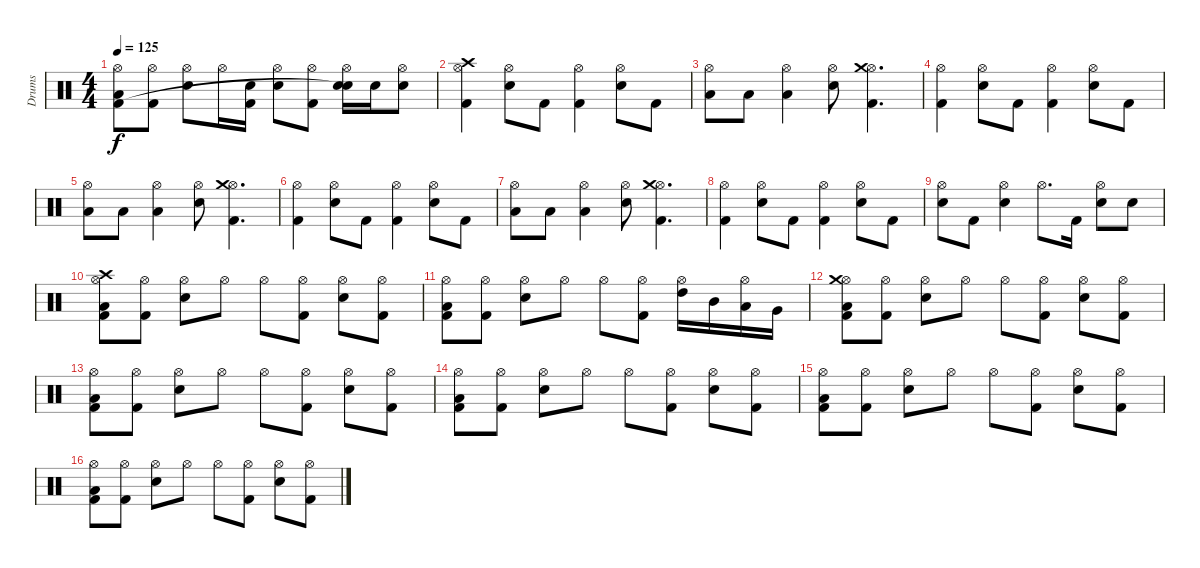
\track ("Drums" "Drums") {instrument percussion}
\staff {score}
\articulation defaults
\ts (4 4)
\tempo 125
\clef neutral
\ks c
("Hi-Hat (open)" "Low Tom (hit)" "Kick (hit) 2").8{dy f} ("Hi-Hat (open)" "Kick (hit) 2").8 ("Hi-Hat (open)" "Snare (hit) 2").8 "Hi-Hat (open)".16 ("Snare (hit) 2" "Kick (hit) 2").16 ("Hi-Hat (open)" "Snare (hit) 2").8 ("Hi-Hat (open)" "Kick (hit) 2").8 ("Hi-Hat (open)" "Electric Snare (hit)" "Snare (hit)"{t}).16 "Electric Snare (hit)".16 ("Hi-Hat (open)" "Snare (hit) 2").8 |
("Hi-Hat (open)" "Crash high (hit)" "Kick (hit) 2").4 ("Hi-Hat (open)" "Snare (hit) 2").8 "Kick (hit) 2".8 ("Hi-Hat (open)" "Kick (hit) 2").4 ("Hi-Hat (open)" "Snare (hit) 2").8 "Kick (hit) 2".8 |
("Hi-Hat (open)" "Low Tom (hit)").8 "Low Tom (hit)".8 ("Hi-Hat (open)" "Low Tom (hit)").4 ("Hi-Hat (open)" "Snare (hit) 2").8 ("Hi-Hat (open)" "Crash medium (hit)" "Kick (hit) 2").4{d} |
("Hi-Hat (open)" "Kick (hit) 2").4 ("Hi-Hat (open)" "Snare (hit) 2").8 "Kick (hit) 2".8 ("Hi-Hat (open)" "Kick (hit) 2").4 ("Hi-Hat (open)" "Snare (hit) 2").8 "Kick (hit) 2".8 |
("Hi-Hat (open)" "Low Tom (hit)").8 "Low Tom (hit)".8 ("Hi-Hat (open)" "Low Tom (hit)").4 ("Hi-Hat (open)" "Snare (hit) 2").8 ("Hi-Hat (open)" "Crash medium (hit)" "Kick (hit) 2").4{d} |
("Hi-Hat (open)" "Kick (hit) 2").4 ("Hi-Hat (open)" "Snare (hit) 2").8 "Kick (hit) 2".8 ("Hi-Hat (open)" "Kick (hit) 2").4 ("Hi-Hat (open)" "Snare (hit) 2").8 "Kick (hit) 2".8 |
("Hi-Hat (open)" "Low Tom (hit)").8 "Low Tom (hit)".8 ("Hi-Hat (open)" "Low Tom (hit)").4 ("Hi-Hat (open)" "Snare (hit) 2").8 ("Hi-Hat (open)" "Crash medium (hit)" "Kick (hit) 2").4{d} |
("Hi-Hat (open)" "Kick (hit) 2").4 ("Hi-Hat (open)" "Snare (hit) 2").8 "Kick (hit) 2".8 ("Hi-Hat (open)" "Kick (hit) 2").4 ("Hi-Hat (open)" "Snare (hit) 2").8 "Kick (hit) 2".8 |
("Hi-Hat (open)" "Electric Snare (hit)").8 "Kick (hit) 2".8 ("Hi-Hat (open)" "Electric Snare (hit)").4 "Hi-Hat (open)".8{d} "Kick (hit) 2".16 ("Hi-Hat (open)" "Electric Snare (hit)").8 "Electric Snare (hit)".8 |
("Hi-Hat (open)" "Crash high (hit)" "Low Tom (hit)" "Kick (hit) 2").8 ("Hi-Hat (open)" "Kick (hit) 2").8 ("Hi-Hat (open)" "Snare (hit) 2").8 "Hi-Hat (open)".8 "Hi-Hat (open)".8 ("Hi-Hat (open)" "Kick (hit) 2").8 ("Hi-Hat (open)" "Snare (hit) 2").8 ("Hi-Hat (open)" "Kick (hit) 2").8 |
("Hi-Hat (open)" "Low Tom (hit)" "Kick (hit) 2").8 ("Hi-Hat (open)" "Kick (hit) 2").8 ("Hi-Hat (open)" "Snare (hit) 2").8 "Hi-Hat (open)".8 "Hi-Hat (open)".8 ("Hi-Hat (open)" "Kick (hit) 2").8 ("Hi-Hat (open)" "High Tom (hit)").16 "Mid Tom (hit)".16 ("Hi-Hat (open)" "Low Tom (hit)").16 "Very Low Tom (hit)".16 |
("Hi-Hat (open)" "Crash medium (hit)" "Low Tom (hit)" "Kick (hit) 2").8 ("Hi-Hat (open)" "Kick (hit) 2").8 ("Hi-Hat (open)" "Snare (hit) 2").8 "Hi-Hat (open)".8 "Hi-Hat (open)".8 ("Hi-Hat (open)" "Kick (hit) 2").8 ("Hi-Hat (open)" "Snare (hit) 2").8 ("Hi-Hat (open)" "Kick (hit) 2").8 |
("Hi-Hat (open)" "Low Tom (hit)" "Kick (hit) 2").8 ("Hi-Hat (open)" "Kick (hit) 2").8 ("Hi-Hat (open)" "Snare (hit) 2").8 "Hi-Hat (open)".8 "Hi-Hat (open)".8 ("Hi-Hat (open)" "Kick (hit) 2").8 ("Hi-Hat (open)" "Snare (hit) 2").8 ("Hi-Hat (open)" "Kick (hit) 2").8 |
("Hi-Hat (open)" "Low Tom (hit)" "Kick (hit) 2").8 ("Hi-Hat (open)" "Kick (hit) 2").8 ("Hi-Hat (open)" "Snare (hit) 2").8 "Hi-Hat (open)".8 "Hi-Hat (open)".8 ("Hi-Hat (open)" "Kick (hit) 2").8 ("Hi-Hat (open)" "Snare (hit) 2").8 ("Hi-Hat (open)" "Kick (hit) 2").8 |
("Hi-Hat (open)" "Low Tom (hit)" "Kick (hit) 2").8 ("Hi-Hat (open)" "Kick (hit) 2").8 ("Hi-Hat (open)" "Snare (hit) 2").8 "Hi-Hat (open)".8 "Hi-Hat (open)".8 ("Hi-Hat (open)" "Kick (hit) 2").8 ("Hi-Hat (open)" "Snare (hit) 2").8 ("Hi-Hat (open)" "Kick (hit) 2").8 |
("Hi-Hat (open)" "Low Tom (hit)" "Kick (hit) 2").8 ("Hi-Hat (open)" "Kick (hit) 2").8 ("Hi-Hat (open)" "Snare (hit) 2").8 "Hi-Hat (open)".8 "Hi-Hat (open)".8 ("Hi-Hat (open)" "Kick (hit) 2").8 ("Hi-Hat (open)" "Snare (hit) 2").8 ("Hi-Hat (open)" "Kick (hit) 2").8
